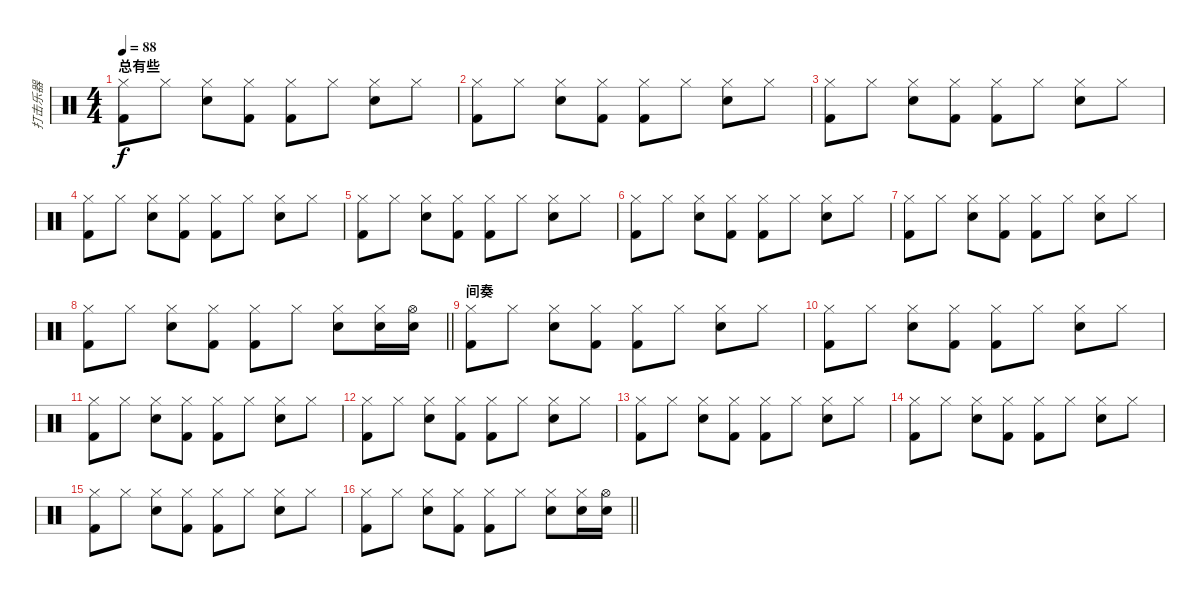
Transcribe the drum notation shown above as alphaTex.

\track ("打击乐器" "打击乐器") {instrument percussion}
\staff {score}
\articulation defaults
\ts (4 4)
\section ("" "总有些")
\tempo 88
\clef neutral
\ks c
("Hi-Hat (closed)" "Kick (hit) 2").8{dy f} "Hi-Hat (closed)".8 ("Hi-Hat (closed)" "Electric Snare (hit)").8 ("Hi-Hat (closed)" "Kick (hit) 2").8 ("Hi-Hat (closed)" "Kick (hit) 2").8 "Hi-Hat (closed)".8 ("Hi-Hat (closed)" "Electric Snare (hit)").8 "Hi-Hat (closed)".8 |
("Hi-Hat (closed)" "Kick (hit) 2").8 "Hi-Hat (closed)".8 ("Hi-Hat (closed)" "Electric Snare (hit)").8 ("Hi-Hat (closed)" "Kick (hit) 2").8 ("Hi-Hat (closed)" "Kick (hit) 2").8 "Hi-Hat (closed)".8 ("Hi-Hat (closed)" "Electric Snare (hit)").8 "Hi-Hat (closed)".8 |
("Hi-Hat (closed)" "Kick (hit) 2").8 "Hi-Hat (closed)".8 ("Hi-Hat (closed)" "Electric Snare (hit)").8 ("Hi-Hat (closed)" "Kick (hit) 2").8 ("Hi-Hat (closed)" "Kick (hit) 2").8 "Hi-Hat (closed)".8 ("Hi-Hat (closed)" "Electric Snare (hit)").8 "Hi-Hat (closed)".8 |
("Hi-Hat (closed)" "Kick (hit) 2").8 "Hi-Hat (closed)".8 ("Hi-Hat (closed)" "Electric Snare (hit)").8 ("Hi-Hat (closed)" "Kick (hit) 2").8 ("Hi-Hat (closed)" "Kick (hit) 2").8 "Hi-Hat (closed)".8 ("Hi-Hat (closed)" "Electric Snare (hit)").8 "Hi-Hat (closed)".8 |
("Hi-Hat (closed)" "Kick (hit) 2").8 "Hi-Hat (closed)".8 ("Hi-Hat (closed)" "Electric Snare (hit)").8 ("Hi-Hat (closed)" "Kick (hit) 2").8 ("Hi-Hat (closed)" "Kick (hit) 2").8 "Hi-Hat (closed)".8 ("Hi-Hat (closed)" "Electric Snare (hit)").8 "Hi-Hat (closed)".8 |
("Hi-Hat (closed)" "Kick (hit) 2").8 "Hi-Hat (closed)".8 ("Hi-Hat (closed)" "Electric Snare (hit)").8 ("Hi-Hat (closed)" "Kick (hit) 2").8 ("Hi-Hat (closed)" "Kick (hit) 2").8 "Hi-Hat (closed)".8 ("Hi-Hat (closed)" "Electric Snare (hit)").8 "Hi-Hat (closed)".8 |
("Hi-Hat (closed)" "Kick (hit) 2").8 "Hi-Hat (closed)".8 ("Hi-Hat (closed)" "Electric Snare (hit)").8 ("Hi-Hat (closed)" "Kick (hit) 2").8 ("Hi-Hat (closed)" "Kick (hit) 2").8 "Hi-Hat (closed)".8 ("Hi-Hat (closed)" "Electric Snare (hit)").8 "Hi-Hat (closed)".8 |
\barLineRight lightlight
("Hi-Hat (closed)" "Kick (hit) 2").8 "Hi-Hat (closed)".8 ("Hi-Hat (closed)" "Electric Snare (hit)").8 ("Hi-Hat (closed)" "Kick (hit) 2").8 ("Hi-Hat (closed)" "Kick (hit) 2").8 "Hi-Hat (closed)".8 ("Hi-Hat (closed)" "Electric Snare (hit)").8 ("Hi-Hat (closed)" "Electric Snare (hit)").16 ("Hi-Hat (open)" "Electric Snare (hit)").16 |
\section ("" "间奏")
("Hi-Hat (closed)" "Kick (hit) 2").8 "Hi-Hat (closed)".8 ("Hi-Hat (closed)" "Electric Snare (hit)").8 ("Hi-Hat (closed)" "Kick (hit) 2").8 ("Hi-Hat (closed)" "Kick (hit) 2").8 "Hi-Hat (closed)".8 ("Hi-Hat (closed)" "Electric Snare (hit)").8 "Hi-Hat (closed)".8 |
("Hi-Hat (closed)" "Kick (hit) 2").8 "Hi-Hat (closed)".8 ("Hi-Hat (closed)" "Electric Snare (hit)").8 ("Hi-Hat (closed)" "Kick (hit) 2").8 ("Hi-Hat (closed)" "Kick (hit) 2").8 "Hi-Hat (closed)".8 ("Hi-Hat (closed)" "Electric Snare (hit)").8 "Hi-Hat (closed)".8 |
("Hi-Hat (closed)" "Kick (hit) 2").8 "Hi-Hat (closed)".8 ("Hi-Hat (closed)" "Electric Snare (hit)").8 ("Hi-Hat (closed)" "Kick (hit) 2").8 ("Hi-Hat (closed)" "Kick (hit) 2").8 "Hi-Hat (closed)".8 ("Hi-Hat (closed)" "Electric Snare (hit)").8 "Hi-Hat (closed)".8 |
("Hi-Hat (closed)" "Kick (hit) 2").8 "Hi-Hat (closed)".8 ("Hi-Hat (closed)" "Electric Snare (hit)").8 ("Hi-Hat (closed)" "Kick (hit) 2").8 ("Hi-Hat (closed)" "Kick (hit) 2").8 "Hi-Hat (closed)".8 ("Hi-Hat (closed)" "Electric Snare (hit)").8 "Hi-Hat (closed)".8 |
("Hi-Hat (closed)" "Kick (hit) 2").8 "Hi-Hat (closed)".8 ("Hi-Hat (closed)" "Electric Snare (hit)").8 ("Hi-Hat (closed)" "Kick (hit) 2").8 ("Hi-Hat (closed)" "Kick (hit) 2").8 "Hi-Hat (closed)".8 ("Hi-Hat (closed)" "Electric Snare (hit)").8 "Hi-Hat (closed)".8 |
("Hi-Hat (closed)" "Kick (hit) 2").8 "Hi-Hat (closed)".8 ("Hi-Hat (closed)" "Electric Snare (hit)").8 ("Hi-Hat (closed)" "Kick (hit) 2").8 ("Hi-Hat (closed)" "Kick (hit) 2").8 "Hi-Hat (closed)".8 ("Hi-Hat (closed)" "Electric Snare (hit)").8 "Hi-Hat (closed)".8 |
("Hi-Hat (closed)" "Kick (hit) 2").8 "Hi-Hat (closed)".8 ("Hi-Hat (closed)" "Electric Snare (hit)").8 ("Hi-Hat (closed)" "Kick (hit) 2").8 ("Hi-Hat (closed)" "Kick (hit) 2").8 "Hi-Hat (closed)".8 ("Hi-Hat (closed)" "Electric Snare (hit)").8 "Hi-Hat (closed)".8 |
\barLineRight lightlight
("Hi-Hat (closed)" "Kick (hit) 2").8 "Hi-Hat (closed)".8 ("Hi-Hat (closed)" "Electric Snare (hit)").8 ("Hi-Hat (closed)" "Kick (hit) 2").8 ("Hi-Hat (closed)" "Kick (hit) 2").8 "Hi-Hat (closed)".8 ("Hi-Hat (closed)" "Electric Snare (hit)").8 ("Hi-Hat (closed)" "Electric Snare (hit)").16 ("Hi-Hat (open)" "Electric Snare (hit)").16
